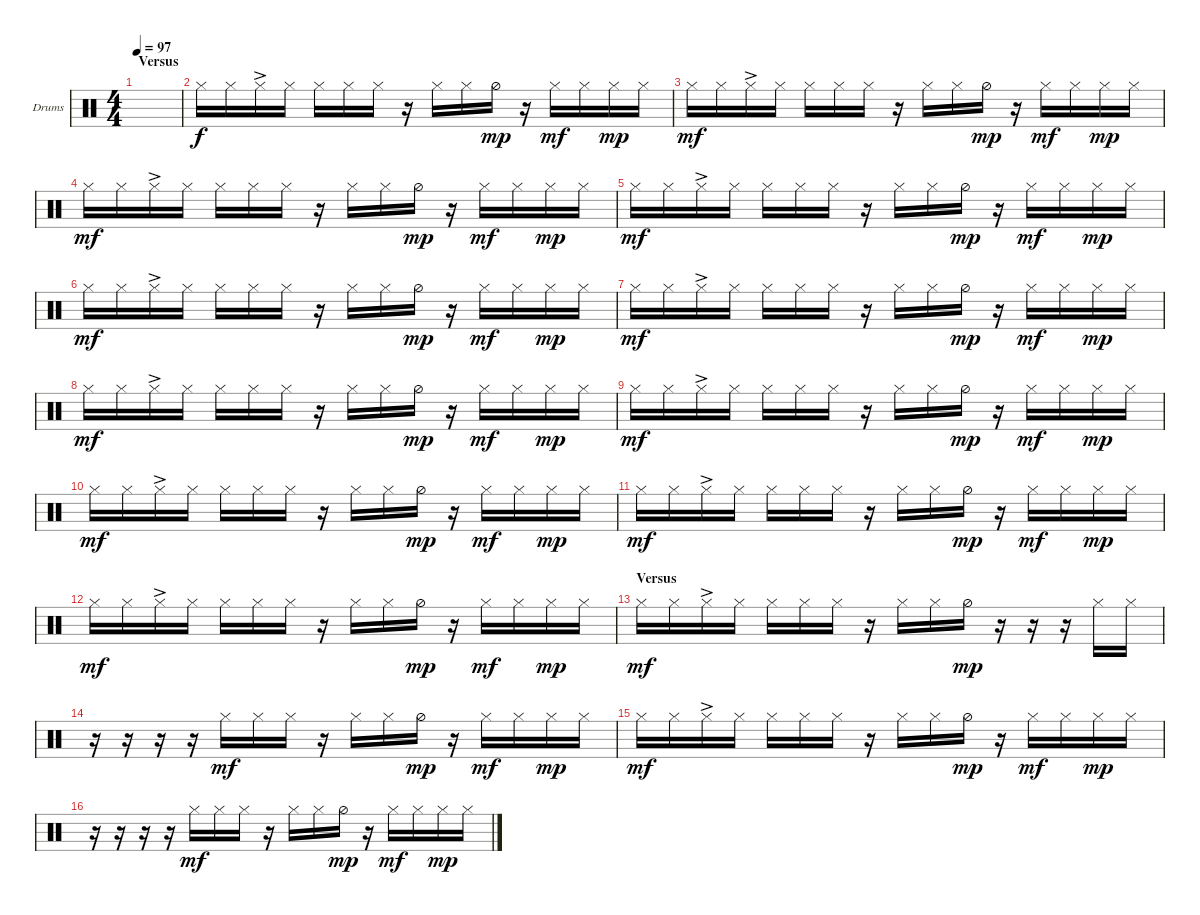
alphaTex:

\bracketExtendMode groupsimilarinstruments
\firstSystemTrackNameOrientation horizontal
\otherSystemsTrackNameOrientation horizontal
\track ("HH" "Drums") {instrument percussion}
\staff {score}
\articulation defaults
\ts (4 4)
\section ("" "Versus")
\tempo 97
\clef neutral
\ks c
|
"Hi-Hat (closed)".16 "Hi-Hat (closed)".16 "Hi-Hat (closed)"{ac}.16 "Hi-Hat (closed)".16 "Hi-Hat (closed)".16 "Hi-Hat (closed)".16 "Hi-Hat (closed)".16 r.16 "Hi-Hat (closed)".16 "Hi-Hat (closed)".16 "Hi-Hat (half)".16{dy mp} r.16 "Hi-Hat (closed)".16{dy mf} "Hi-Hat (closed)".16 "Hi-Hat (closed)".16{dy mp} "Hi-Hat (closed)".16 |
"Hi-Hat (closed)".16{dy mf} "Hi-Hat (closed)".16 "Hi-Hat (closed)"{ac}.16 "Hi-Hat (closed)".16 "Hi-Hat (closed)".16 "Hi-Hat (closed)".16 "Hi-Hat (closed)".16 r.16 "Hi-Hat (closed)".16 "Hi-Hat (closed)".16 "Hi-Hat (half)".16{dy mp} r.16 "Hi-Hat (closed)".16{dy mf} "Hi-Hat (closed)".16 "Hi-Hat (closed)".16{dy mp} "Hi-Hat (closed)".16 |
"Hi-Hat (closed)".16{dy mf} "Hi-Hat (closed)".16 "Hi-Hat (closed)"{ac}.16 "Hi-Hat (closed)".16 "Hi-Hat (closed)".16 "Hi-Hat (closed)".16 "Hi-Hat (closed)".16 r.16 "Hi-Hat (closed)".16 "Hi-Hat (closed)".16 "Hi-Hat (half)".16{dy mp} r.16 "Hi-Hat (closed)".16{dy mf} "Hi-Hat (closed)".16 "Hi-Hat (closed)".16{dy mp} "Hi-Hat (closed)".16 |
"Hi-Hat (closed)".16{dy mf} "Hi-Hat (closed)".16 "Hi-Hat (closed)"{ac}.16 "Hi-Hat (closed)".16 "Hi-Hat (closed)".16 "Hi-Hat (closed)".16 "Hi-Hat (closed)".16 r.16 "Hi-Hat (closed)".16 "Hi-Hat (closed)".16 "Hi-Hat (half)".16{dy mp} r.16 "Hi-Hat (closed)".16{dy mf} "Hi-Hat (closed)".16 "Hi-Hat (closed)".16{dy mp} "Hi-Hat (closed)".16 |
"Hi-Hat (closed)".16{dy mf} "Hi-Hat (closed)".16 "Hi-Hat (closed)"{ac}.16 "Hi-Hat (closed)".16 "Hi-Hat (closed)".16 "Hi-Hat (closed)".16 "Hi-Hat (closed)".16 r.16 "Hi-Hat (closed)".16 "Hi-Hat (closed)".16 "Hi-Hat (half)".16{dy mp} r.16 "Hi-Hat (closed)".16{dy mf} "Hi-Hat (closed)".16 "Hi-Hat (closed)".16{dy mp} "Hi-Hat (closed)".16 |
"Hi-Hat (closed)".16{dy mf} "Hi-Hat (closed)".16 "Hi-Hat (closed)"{ac}.16 "Hi-Hat (closed)".16 "Hi-Hat (closed)".16 "Hi-Hat (closed)".16 "Hi-Hat (closed)".16 r.16 "Hi-Hat (closed)".16 "Hi-Hat (closed)".16 "Hi-Hat (half)".16{dy mp} r.16 "Hi-Hat (closed)".16{dy mf} "Hi-Hat (closed)".16 "Hi-Hat (closed)".16{dy mp} "Hi-Hat (closed)".16 |
"Hi-Hat (closed)".16{dy mf} "Hi-Hat (closed)".16 "Hi-Hat (closed)"{ac}.16 "Hi-Hat (closed)".16 "Hi-Hat (closed)".16 "Hi-Hat (closed)".16 "Hi-Hat (closed)".16 r.16 "Hi-Hat (closed)".16 "Hi-Hat (closed)".16 "Hi-Hat (half)".16{dy mp} r.16 "Hi-Hat (closed)".16{dy mf} "Hi-Hat (closed)".16 "Hi-Hat (closed)".16{dy mp} "Hi-Hat (closed)".16 |
"Hi-Hat (closed)".16{dy mf} "Hi-Hat (closed)".16 "Hi-Hat (closed)"{ac}.16 "Hi-Hat (closed)".16 "Hi-Hat (closed)".16 "Hi-Hat (closed)".16 "Hi-Hat (closed)".16 r.16 "Hi-Hat (closed)".16 "Hi-Hat (closed)".16 "Hi-Hat (half)".16{dy mp} r.16 "Hi-Hat (closed)".16{dy mf} "Hi-Hat (closed)".16 "Hi-Hat (closed)".16{dy mp} "Hi-Hat (closed)".16 |
"Hi-Hat (closed)".16{dy mf} "Hi-Hat (closed)".16 "Hi-Hat (closed)"{ac}.16 "Hi-Hat (closed)".16 "Hi-Hat (closed)".16 "Hi-Hat (closed)".16 "Hi-Hat (closed)".16 r.16 "Hi-Hat (closed)".16 "Hi-Hat (closed)".16 "Hi-Hat (half)".16{dy mp} r.16 "Hi-Hat (closed)".16{dy mf} "Hi-Hat (closed)".16 "Hi-Hat (closed)".16{dy mp} "Hi-Hat (closed)".16 |
"Hi-Hat (closed)".16{dy mf} "Hi-Hat (closed)".16 "Hi-Hat (closed)"{ac}.16 "Hi-Hat (closed)".16 "Hi-Hat (closed)".16 "Hi-Hat (closed)".16 "Hi-Hat (closed)".16 r.16 "Hi-Hat (closed)".16 "Hi-Hat (closed)".16 "Hi-Hat (half)".16{dy mp} r.16 "Hi-Hat (closed)".16{dy mf} "Hi-Hat (closed)".16 "Hi-Hat (closed)".16{dy mp} "Hi-Hat (closed)".16 |
"Hi-Hat (closed)".16{dy mf} "Hi-Hat (closed)".16 "Hi-Hat (closed)"{ac}.16 "Hi-Hat (closed)".16 "Hi-Hat (closed)".16 "Hi-Hat (closed)".16 "Hi-Hat (closed)".16 r.16 "Hi-Hat (closed)".16 "Hi-Hat (closed)".16 "Hi-Hat (half)".16{dy mp} r.16 "Hi-Hat (closed)".16{dy mf} "Hi-Hat (closed)".16 "Hi-Hat (closed)".16{dy mp} "Hi-Hat (closed)".16 |
\section ("" "Versus")
"Hi-Hat (closed)".16{dy mf} "Hi-Hat (closed)".16 "Hi-Hat (closed)"{ac}.16 "Hi-Hat (closed)".16 "Hi-Hat (closed)".16 "Hi-Hat (closed)".16 "Hi-Hat (closed)".16 r.16 "Hi-Hat (closed)".16 "Hi-Hat (closed)".16 "Hi-Hat (half)".16{dy mp} r.16 r.16 r.16 "Hi-Hat (closed)".16 "Hi-Hat (closed)".16 |
r.16 r.16 r.16 r.16 "Hi-Hat (closed)".16{dy mf} "Hi-Hat (closed)".16 "Hi-Hat (closed)".16 r.16 "Hi-Hat (closed)".16 "Hi-Hat (closed)".16 "Hi-Hat (half)".16{dy mp} r.16 "Hi-Hat (closed)".16{dy mf} "Hi-Hat (closed)".16 "Hi-Hat (closed)".16{dy mp} "Hi-Hat (closed)".16 |
"Hi-Hat (closed)".16{dy mf} "Hi-Hat (closed)".16 "Hi-Hat (closed)"{ac}.16 "Hi-Hat (closed)".16 "Hi-Hat (closed)".16 "Hi-Hat (closed)".16 "Hi-Hat (closed)".16 r.16 "Hi-Hat (closed)".16 "Hi-Hat (closed)".16 "Hi-Hat (half)".16{dy mp} r.16 "Hi-Hat (closed)".16{dy mf} "Hi-Hat (closed)".16 "Hi-Hat (closed)".16{dy mp} "Hi-Hat (closed)".16 |
r.16 r.16 r.16 r.16 "Hi-Hat (closed)".16{dy mf} "Hi-Hat (closed)".16 "Hi-Hat (closed)".16 r.16 "Hi-Hat (closed)".16 "Hi-Hat (closed)".16 "Hi-Hat (half)".16{dy mp} r.16 "Hi-Hat (closed)".16{dy mf} "Hi-Hat (closed)".16 "Hi-Hat (closed)".16{dy mp} "Hi-Hat (closed)".16
